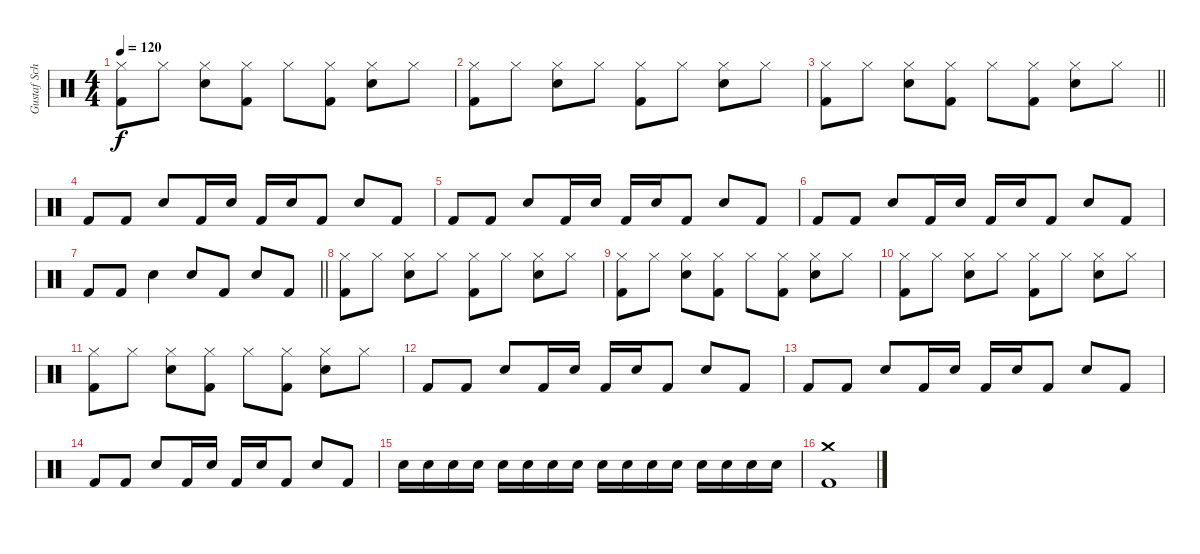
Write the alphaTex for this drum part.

\track ("Gustaf Schafer" "Gustaf Sch") {instrument percussion}
\staff {score}
\articulation defaults
\ts (4 4)
\tempo 120
\clef neutral
\ks c
("Hi-Hat (closed)" "Kick (hit) 2").8{dy f} "Hi-Hat (closed)".8 ("Hi-Hat (closed)" "Snare (hit) 2").8 ("Hi-Hat (closed)" "Kick (hit) 2").8 "Hi-Hat (closed)".8 ("Hi-Hat (closed)" "Kick (hit) 2").8 ("Hi-Hat (closed)" "Snare (hit) 2").8 "Hi-Hat (closed)".8 |
("Hi-Hat (closed)" "Kick (hit) 2").8 "Hi-Hat (closed)".8 ("Hi-Hat (closed)" "Snare (hit) 2").8 "Hi-Hat (closed)".8 ("Hi-Hat (closed)" "Kick (hit) 2").8 "Hi-Hat (closed)".8 ("Hi-Hat (closed)" "Snare (hit) 2").8 "Hi-Hat (closed)".8 |
\barLineRight lightlight
("Hi-Hat (closed)" "Kick (hit) 2").8 "Hi-Hat (closed)".8 ("Hi-Hat (closed)" "Snare (hit) 2").8 ("Hi-Hat (closed)" "Kick (hit) 2").8 "Hi-Hat (closed)".8 ("Hi-Hat (closed)" "Kick (hit) 2").8 ("Hi-Hat (closed)" "Snare (hit) 2").8 "Hi-Hat (closed)".8 |
"Kick (hit) 2".8 "Kick (hit) 2".8 "Snare (hit) 2".8 "Kick (hit) 2".16 "Snare (hit) 2".16 "Kick (hit) 2".16 "Snare (hit) 2".16 "Kick (hit) 2".8 "Snare (hit) 2".8 "Kick (hit) 2".8 |
"Kick (hit) 2".8 "Kick (hit) 2".8 "Snare (hit) 2".8 "Kick (hit) 2".16 "Snare (hit) 2".16 "Kick (hit) 2".16 "Snare (hit) 2".16 "Kick (hit) 2".8 "Snare (hit) 2".8 "Kick (hit) 2".8 |
"Kick (hit) 2".8 "Kick (hit) 2".8 "Snare (hit) 2".8 "Kick (hit) 2".16 "Snare (hit) 2".16 "Kick (hit) 2".16 "Snare (hit) 2".16 "Kick (hit) 2".8 "Snare (hit) 2".8 "Kick (hit) 2".8 |
\barLineRight lightlight "Kick (hit) 2".8 "Kick (hit) 2".8 "Snare (hit) 2".4 "Snare (hit) 2".8 "Kick (hit) 2".8 "Snare (hit) 2".8 "Kick (hit) 2".8
|
("Hi-Hat (closed)" "Kick (hit) 2").8 "Hi-Hat (closed)".8 ("Hi-Hat (closed)" "Snare (hit) 2").8 "Hi-Hat (closed)".8 ("Hi-Hat (closed)" "Kick (hit) 2").8 "Hi-Hat (closed)".8 ("Hi-Hat (closed)" "Snare (hit) 2").8 "Hi-Hat (closed)".8 |
("Hi-Hat (closed)" "Kick (hit) 2").8 "Hi-Hat (closed)".8 ("Hi-Hat (closed)" "Snare (hit) 2").8 ("Hi-Hat (closed)" "Kick (hit) 2").8 "Hi-Hat (closed)".8 ("Hi-Hat (closed)" "Kick (hit) 2").8 ("Hi-Hat (closed)" "Snare (hit) 2").8 "Hi-Hat (closed)".8 |
("Hi-Hat (closed)" "Kick (hit) 2").8 "Hi-Hat (closed)".8 ("Hi-Hat (closed)" "Snare (hit) 2").8 "Hi-Hat (closed)".8 ("Hi-Hat (closed)" "Kick (hit) 2").8 "Hi-Hat (closed)".8 ("Hi-Hat (closed)" "Snare (hit) 2").8 "Hi-Hat (closed)".8 |
("Hi-Hat (closed)" "Kick (hit) 2").8 "Hi-Hat (closed)".8 ("Hi-Hat (closed)" "Snare (hit) 2").8 ("Hi-Hat (closed)" "Kick (hit) 2").8 "Hi-Hat (closed)".8 ("Hi-Hat (closed)" "Kick (hit) 2").8 ("Hi-Hat (closed)" "Snare (hit) 2").8 "Hi-Hat (closed)".8 |
"Kick (hit) 2".8 "Kick (hit) 2".8 "Snare (hit) 2".8 "Kick (hit) 2".16 "Snare (hit) 2".16 "Kick (hit) 2".16 "Snare (hit) 2".16 "Kick (hit) 2".8 "Snare (hit) 2".8 "Kick (hit) 2".8 |
"Kick (hit) 2".8 "Kick (hit) 2".8 "Snare (hit) 2".8 "Kick (hit) 2".16 "Snare (hit) 2".16 "Kick (hit) 2".16 "Snare (hit) 2".16 "Kick (hit) 2".8 "Snare (hit) 2".8 "Kick (hit) 2".8 |
"Kick (hit) 2".8 "Kick (hit) 2".8 "Snare (hit) 2".8 "Kick (hit) 2".16 "Snare (hit) 2".16 "Kick (hit) 2".16 "Snare (hit) 2".16 "Kick (hit) 2".8 "Snare (hit) 2".8 "Kick (hit) 2".8 |
"Snare (hit) 2".16 "Snare (hit) 2".16 "Snare (hit) 2".16 "Snare (hit) 2".16 "Snare (hit) 2".16 "Snare (hit) 2".16 "Snare (hit) 2".16 "Snare (hit) 2".16 "Snare (hit) 2".16 "Snare (hit) 2".16 "Snare (hit) 2".16 "Snare (hit) 2".16 "Snare (hit) 2".16 "Snare (hit) 2".16 "Snare (hit) 2".16 "Snare (hit) 2".16 |
("Crash medium (hit)" "Kick (hit) 2").1
